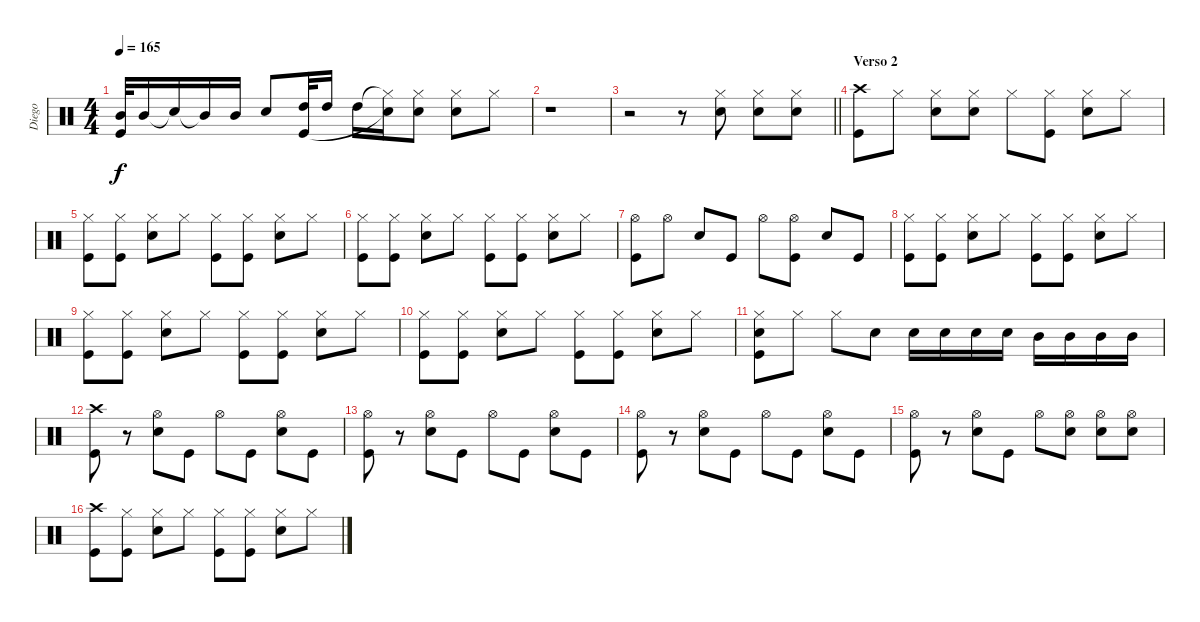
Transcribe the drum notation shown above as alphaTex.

\track ("Diego" "Diego") {instrument percussion}
\staff {score}
\articulation defaults
\ts (4 4)
\tempo 165
\clef neutral
\ks c
("Mid Tom (hit)" "Kick (hit)").32{dy f} "Mid Tom (hit)".16 "Snare (hit)"{t}.16 "Mid Tom (hit)"{t}.16 "Mid Tom (hit)".16 "Snare (hit) 2".8 ("High Tom (hit)" "Kick (hit)").32 "High Tom (hit)".16 "High Tom (hit)".16 ("Hi-Hat (closed)"{t} "Snare (hit) 2"{t}).16 ("Hi-Hat (closed)" "Snare (hit) 2").8 ("Hi-Hat (closed)" "Snare (hit) 2").8 "Hi-Hat (closed)".8 |
r.1 |
\barLineRight lightlight
r.2 r.8 ("Hi-Hat (closed)" "Snare (hit) 2").8 ("Hi-Hat (closed)" "Snare (hit) 2").8 ("Hi-Hat (closed)" "Snare (hit) 2").8 |
\section ("" "Verso 2")
("Crash high (hit)" "Kick (hit)").8 "Hi-Hat (closed)".8 ("Hi-Hat (closed)" "Snare (hit) 2").8 ("Hi-Hat (closed)" "Snare (hit) 2").8 "Hi-Hat (closed)".8 ("Hi-Hat (closed)" "Kick (hit)").8 ("Hi-Hat (closed)" "Snare (hit) 2").8 "Hi-Hat (closed)".8 |
("Hi-Hat (closed)" "Kick (hit)").8 ("Hi-Hat (closed)" "Kick (hit)").8 ("Hi-Hat (closed)" "Snare (hit) 2").8 "Hi-Hat (closed)".8 ("Hi-Hat (closed)" "Kick (hit)").8 ("Hi-Hat (closed)" "Kick (hit)").8 ("Hi-Hat (closed)" "Snare (hit) 2").8 "Hi-Hat (closed)".8 |
("Hi-Hat (closed)" "Kick (hit)").8 ("Hi-Hat (closed)" "Kick (hit)").8 ("Hi-Hat (closed)" "Snare (hit) 2").8 "Hi-Hat (closed)".8 ("Hi-Hat (closed)" "Kick (hit)").8 ("Hi-Hat (closed)" "Kick (hit)").8 ("Hi-Hat (closed)" "Snare (hit) 2").8 "Hi-Hat (closed)".8 |
("Hi-Hat (open)" "Kick (hit)").8 "Hi-Hat (open)".8 "Snare (hit) 2".8 "Kick (hit)".8 "Hi-Hat (open)".8 ("Hi-Hat (open)" "Kick (hit)").8 "Snare (hit) 2".8 "Kick (hit)".8 |
("Hi-Hat (closed)" "Kick (hit)").8 ("Hi-Hat (closed)" "Kick (hit)").8 ("Hi-Hat (closed)" "Snare (hit) 2").8 "Hi-Hat (closed)".8 ("Hi-Hat (closed)" "Kick (hit)").8 ("Hi-Hat (closed)" "Kick (hit)").8 ("Hi-Hat (closed)" "Snare (hit) 2").8 "Hi-Hat (closed)".8 |
("Hi-Hat (closed)" "Kick (hit)").8 ("Hi-Hat (closed)" "Kick (hit)").8 ("Hi-Hat (closed)" "Snare (hit) 2").8 "Hi-Hat (closed)".8 ("Hi-Hat (closed)" "Kick (hit)").8 ("Hi-Hat (closed)" "Kick (hit)").8 ("Hi-Hat (closed)" "Snare (hit) 2").8 "Hi-Hat (closed)".8 |
("Hi-Hat (closed)" "Kick (hit)").8 ("Hi-Hat (closed)" "Kick (hit)").8 ("Hi-Hat (closed)" "Snare (hit) 2").8 "Hi-Hat (closed)".8 ("Hi-Hat (closed)" "Kick (hit)").8 ("Hi-Hat (closed)" "Kick (hit)").8 ("Hi-Hat (closed)" "Snare (hit) 2").8 "Hi-Hat (closed)".8 |
("Hi-Hat (closed)" "Snare (hit) 2" "Kick (hit)").8 "Hi-Hat (closed)".8 "Hi-Hat (closed)".8 "Snare (hit) 2".8 "Snare (hit) 2".16 "Snare (hit) 2".16 "Snare (hit) 2".16 "Snare (hit) 2".16 "Mid Tom (hit)".16 "Mid Tom (hit)".16 "Mid Tom (hit)".16 "Mid Tom (hit)".16 |
("Crash high (hit)" "Kick (hit)").8 r.8 ("Hi-Hat (open)" "Snare (hit) 2").8 "Kick (hit)".8 "Hi-Hat (open)".8 "Kick (hit)".8 ("Hi-Hat (open)" "Snare (hit) 2").8 "Kick (hit)".8 |
("Hi-Hat (open)" "Kick (hit)").8 r.8 ("Hi-Hat (open)" "Snare (hit) 2").8 "Kick (hit)".8 "Hi-Hat (open)".8 "Kick (hit)".8 ("Hi-Hat (open)" "Snare (hit) 2").8 "Kick (hit)".8 |
("Hi-Hat (open)" "Kick (hit)").8 r.8 ("Hi-Hat (open)" "Snare (hit) 2").8 "Kick (hit)".8 "Hi-Hat (open)".8 "Kick (hit)".8 ("Hi-Hat (open)" "Snare (hit) 2").8 "Kick (hit)".8 |
("Hi-Hat (open)" "Kick (hit)").8 r.8 ("Hi-Hat (open)" "Snare (hit) 2").8 "Kick (hit)".8 "Hi-Hat (open)".8 ("Hi-Hat (open)" "Snare (hit) 2").8 ("Hi-Hat (open)" "Snare (hit) 2").8 ("Hi-Hat (open)" "Snare (hit) 2").8 |
("Crash high (hit)" "Kick (hit)").8 ("Hi-Hat (closed)" "Kick (hit)").8 ("Hi-Hat (closed)" "Snare (hit) 2").8 "Hi-Hat (closed)".8 ("Hi-Hat (closed)" "Kick (hit)").8 ("Hi-Hat (closed)" "Kick (hit)").8 ("Hi-Hat (closed)" "Snare (hit) 2").8 "Hi-Hat (closed)".8
